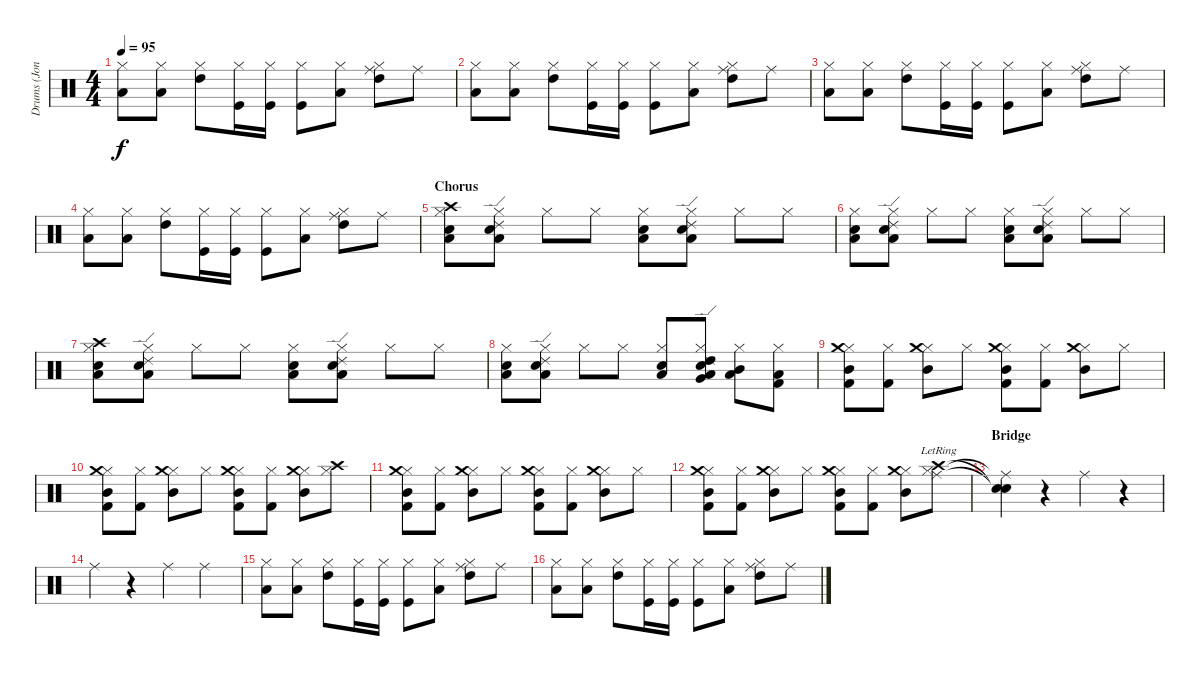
\track ("Drums (Jon Lee)" "Drums (Jon") {instrument percussion}
\staff {score}
\articulation defaults
\ts (4 4)
\tempo 95
\clef neutral
\ks c
("Low Floor Tom (hit)" "Hi-Hat (closed)").8{dy f} ("Low Floor Tom (hit)" "Hi-Hat (closed)").8 ("High Tom (hit)" "Hi-Hat (closed)").8 ("Kick (hit)" "Hi-Hat (closed)").16 ("Kick (hit)" "Hi-Hat (closed)").16 ("Kick (hit)" "Hi-Hat (closed)").8 ("Low Floor Tom (hit)" "Hi-Hat (closed)").8 ("High Tom (hit)" "Hi-Hat (closed)" "Ride (middle)").8 "Ride (middle)".8 |
("Low Floor Tom (hit)" "Hi-Hat (closed)").8 ("Low Floor Tom (hit)" "Hi-Hat (closed)").8 ("High Tom (hit)" "Hi-Hat (closed)").8 ("Kick (hit)" "Hi-Hat (closed)").16 ("Kick (hit)" "Hi-Hat (closed)").16 ("Kick (hit)" "Hi-Hat (closed)").8 ("Low Floor Tom (hit)" "Hi-Hat (closed)").8 ("High Tom (hit)" "Hi-Hat (closed)" "Ride (middle)").8 "Ride (middle)".8 |
("Low Floor Tom (hit)" "Hi-Hat (closed)").8 ("Low Floor Tom (hit)" "Hi-Hat (closed)").8 ("High Tom (hit)" "Hi-Hat (closed)").8 ("Kick (hit)" "Hi-Hat (closed)").16 ("Kick (hit)" "Hi-Hat (closed)").16 ("Kick (hit)" "Hi-Hat (closed)").8 ("Low Floor Tom (hit)" "Hi-Hat (closed)").8 ("High Tom (hit)" "Hi-Hat (closed)" "Ride (middle)").8 "Ride (middle)".8 |
("Low Floor Tom (hit)" "Hi-Hat (closed)").8 ("Low Floor Tom (hit)" "Hi-Hat (closed)").8 ("High Tom (hit)" "Hi-Hat (closed)").8 ("Kick (hit)" "Hi-Hat (closed)").16 ("Kick (hit)" "Hi-Hat (closed)").16 ("Kick (hit)" "Hi-Hat (closed)").8 ("Low Floor Tom (hit)" "Hi-Hat (closed)").8 ("High Tom (hit)" "Hi-Hat (closed)" "Ride (middle)").8 "Ride (middle)".8 |
\section ("" "Chorus")
("Hi-Hat (closed)" "Low Floor Tom (hit)" "Snare (hit) 2" "Crash high (hit)").8 ("Hi-Hat (closed)" "Low Floor Tom (hit)" "Ride (edge) 2" "Snare (hit) 2").8 "Hi-Hat (closed)".8 "Hi-Hat (closed)".8 ("Hi-Hat (closed)" "Low Floor Tom (hit)" "Snare (hit) 2").8 ("Hi-Hat (closed)" "Low Floor Tom (hit)" "Ride (edge) 2" "Snare (hit) 2").8 "Hi-Hat (closed)".8 "Hi-Hat (closed)".8 |
("Hi-Hat (closed)" "Low Floor Tom (hit)" "Snare (hit) 2").8 ("Hi-Hat (closed)" "Low Floor Tom (hit)" "Ride (edge) 2" "Snare (hit) 2").8 "Hi-Hat (closed)".8 "Hi-Hat (closed)".8 ("Hi-Hat (closed)" "Low Floor Tom (hit)" "Snare (hit) 2").8 ("Hi-Hat (closed)" "Low Floor Tom (hit)" "Ride (edge) 2" "Snare (hit) 2").8 "Hi-Hat (closed)".8 "Hi-Hat (closed)".8 |
("Hi-Hat (closed)" "Low Floor Tom (hit)" "Snare (hit) 2" "Crash high (hit)").8 ("Hi-Hat (closed)" "Low Floor Tom (hit)" "Ride (edge) 2" "Snare (hit) 2").8 "Hi-Hat (closed)".8 "Hi-Hat (closed)".8 ("Hi-Hat (closed)" "Low Floor Tom (hit)" "Snare (hit) 2").8 ("Hi-Hat (closed)" "Low Floor Tom (hit)" "Ride (edge) 2" "Snare (hit) 2").8 "Hi-Hat (closed)".8 "Hi-Hat (closed)".8 |
("Hi-Hat (closed)" "Low Floor Tom (hit)" "Snare (hit) 2").8 ("Hi-Hat (closed)" "Low Floor Tom (hit)" "Ride (edge) 2" "Snare (hit) 2").8 "Hi-Hat (closed)".8 "Hi-Hat (closed)".8 ("Hi-Hat (closed)" "Low Floor Tom (hit)" "Snare (hit) 2").8 ("Hi-Hat (closed)" "Low Floor Tom (hit)" "Ride (edge) 2" "Snare (hit) 2" "High Tom (hit)" "Very Low Tom (hit)").8 ("Hi-Hat (closed)" "Mid Tom (hit)" "Low Floor Tom (hit)").8 ("Hi-Hat (closed)" "Low Tom (hit)" "Kick (hit) 2").8 |
("Hi-Hat (closed)" "Crash medium (hit)" "Mid Tom (hit)" "Kick (hit) 2").8 ("Hi-Hat (closed)" "Kick (hit) 2").8 ("Hi-Hat (closed)" "Crash medium (hit)" "Mid Tom (hit)").8 "Hi-Hat (closed)".8 ("Hi-Hat (closed)" "Crash medium (hit)" "Mid Tom (hit)" "Kick (hit) 2").8 ("Hi-Hat (closed)" "Kick (hit) 2").8 ("Hi-Hat (closed)" "Crash medium (hit)" "Mid Tom (hit)").8 "Hi-Hat (closed)".8 |
("Hi-Hat (closed)" "Crash medium (hit)" "Mid Tom (hit)" "Kick (hit) 2").8 ("Hi-Hat (closed)" "Kick (hit) 2").8 ("Hi-Hat (closed)" "Crash medium (hit)" "Mid Tom (hit)").8 "Hi-Hat (closed)".8 ("Hi-Hat (closed)" "Crash medium (hit)" "Mid Tom (hit)" "Kick (hit) 2").8 ("Hi-Hat (closed)" "Kick (hit) 2").8 ("Hi-Hat (closed)" "Crash medium (hit)" "Mid Tom (hit)").8 ("Hi-Hat (closed)" "Crash high (hit)").8 |
("Hi-Hat (closed)" "Crash medium (hit)" "Mid Tom (hit)" "Kick (hit) 2").8 ("Hi-Hat (closed)" "Kick (hit) 2").8 ("Hi-Hat (closed)" "Crash medium (hit)" "Mid Tom (hit)").8 "Hi-Hat (closed)".8 ("Hi-Hat (closed)" "Crash medium (hit)" "Mid Tom (hit)" "Kick (hit) 2").8 ("Hi-Hat (closed)" "Kick (hit) 2").8 ("Hi-Hat (closed)" "Crash medium (hit)" "Mid Tom (hit)").8 "Hi-Hat (closed)".8 |
("Hi-Hat (closed)" "Crash medium (hit)" "Mid Tom (hit)" "Kick (hit) 2").8 ("Hi-Hat (closed)" "Kick (hit) 2").8 ("Hi-Hat (closed)" "Crash medium (hit)" "Mid Tom (hit)").8 "Hi-Hat (closed)".8 ("Hi-Hat (closed)" "Crash medium (hit)" "Mid Tom (hit)" "Kick (hit) 2").8 ("Hi-Hat (closed)" "Kick (hit) 2").8 ("Hi-Hat (closed)" "Crash medium (hit)" "Mid Tom (hit)").8 ("Hi-Hat (closed)"{lr} "Ride (middle)"{lr} "Crash high (hit)"{lr}).8 |
\section ("" "Bridge")
("Ride (middle)"{t} "Snare (hit)"{t} "Snare (hit)"{t}).4 r.4 "Ride (middle)".4 r.4 |
"Ride (middle)".4 r.4 "Ride (middle)".4 "Ride (middle)".4 |
("Low Floor Tom (hit)" "Hi-Hat (closed)").8 ("Low Floor Tom (hit)" "Hi-Hat (closed)").8 ("High Tom (hit)" "Hi-Hat (closed)").8 ("Kick (hit)" "Hi-Hat (closed)").16 ("Kick (hit)" "Hi-Hat (closed)").16 ("Kick (hit)" "Hi-Hat (closed)").8 ("Low Floor Tom (hit)" "Hi-Hat (closed)").8 ("High Tom (hit)" "Hi-Hat (closed)" "Ride (middle)").8 "Ride (middle)".8 |
("Low Floor Tom (hit)" "Hi-Hat (closed)").8 ("Low Floor Tom (hit)" "Hi-Hat (closed)").8 ("High Tom (hit)" "Hi-Hat (closed)").8 ("Kick (hit)" "Hi-Hat (closed)").16 ("Kick (hit)" "Hi-Hat (closed)").16 ("Kick (hit)" "Hi-Hat (closed)").8 ("Low Floor Tom (hit)" "Hi-Hat (closed)").8 ("High Tom (hit)" "Hi-Hat (closed)" "Ride (middle)").8 "Ride (middle)".8
